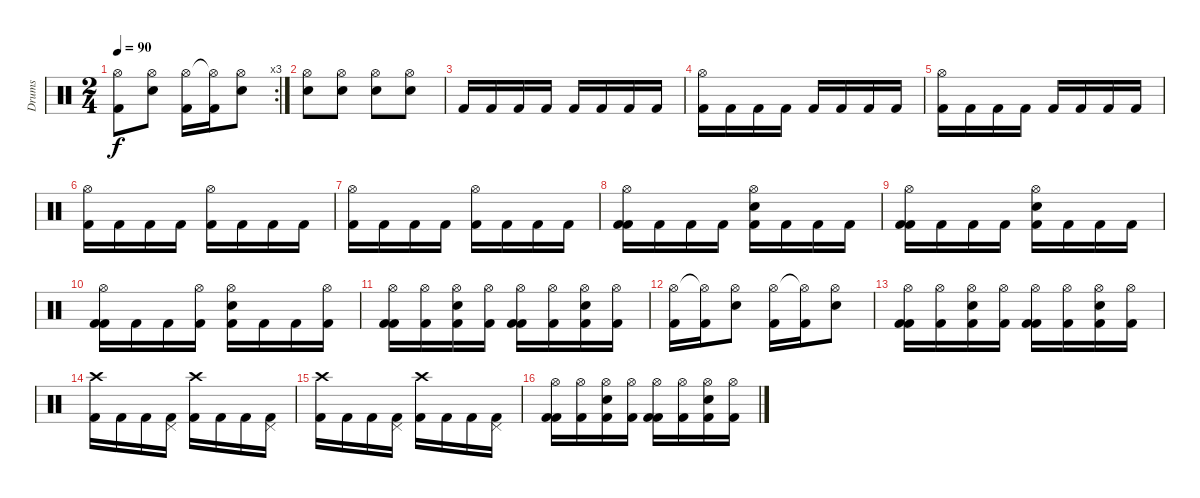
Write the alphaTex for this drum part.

\track ("Drums" "Drums") {instrument percussion}
\staff {score}
\articulation defaults
\rc 3
\ts (2 4)
\tempo 90
\clef neutral
\ks c
("Hi-Hat (open)" "Kick (hit) 2").8{dy f} ("Hi-Hat (open)" "Electric Snare (hit)").8 ("Hi-Hat (open)" "Kick (hit) 2").16 ("Hi-Hat (open)"{t} "Kick (hit) 2").16 ("Hi-Hat (open)" "Electric Snare (hit)").8 |
("Hi-Hat (open)" "Electric Snare (hit)").8 ("Hi-Hat (open)" "Electric Snare (hit)").8 ("Hi-Hat (open)" "Electric Snare (hit)").8 ("Hi-Hat (open)" "Electric Snare (hit)").8 |
"Kick (hit) 2".16 "Kick (hit) 2".16 "Kick (hit) 2".16 "Kick (hit) 2".16 "Kick (hit) 2".16 "Kick (hit) 2".16 "Kick (hit) 2".16 "Kick (hit) 2".16 |
("Hi-Hat (open)" "Kick (hit) 2").16 "Kick (hit) 2".16 "Kick (hit) 2".16 "Kick (hit) 2".16 "Kick (hit) 2".16 "Kick (hit) 2".16 "Kick (hit) 2".16 "Kick (hit) 2".16 |
("Hi-Hat (open)" "Kick (hit) 2").16 "Kick (hit) 2".16 "Kick (hit) 2".16 "Kick (hit) 2".16 "Kick (hit) 2".16 "Kick (hit) 2".16 "Kick (hit) 2".16 "Kick (hit) 2".16 |
("Hi-Hat (open)" "Kick (hit) 2").16 "Kick (hit) 2".16 "Kick (hit) 2".16 "Kick (hit) 2".16 ("Hi-Hat (open)" "Kick (hit) 2").16 "Kick (hit) 2".16 "Kick (hit) 2".16 "Kick (hit) 2".16 |
("Hi-Hat (open)" "Kick (hit) 2").16 "Kick (hit) 2".16 "Kick (hit) 2".16 "Kick (hit) 2".16 ("Hi-Hat (open)" "Kick (hit) 2").16 "Kick (hit) 2".16 "Kick (hit) 2".16 "Kick (hit) 2".16 |
("Hi-Hat (open)" "Kick (hit) 2" "Kick (hit) 2").16 "Kick (hit) 2".16 "Kick (hit) 2".16 "Kick (hit) 2".16 ("Hi-Hat (open)" "Electric Snare (hit)" "Kick (hit) 2").16 "Kick (hit) 2".16 "Kick (hit) 2".16 "Kick (hit) 2".16 |
("Hi-Hat (open)" "Kick (hit) 2" "Kick (hit) 2").16 "Kick (hit) 2".16 "Kick (hit) 2".16 "Kick (hit) 2".16 ("Hi-Hat (open)" "Electric Snare (hit)" "Kick (hit) 2").16 "Kick (hit) 2".16 "Kick (hit) 2".16 "Kick (hit) 2".16 |
("Hi-Hat (open)" "Kick (hit) 2" "Kick (hit) 2").16 "Kick (hit) 2".16 "Kick (hit) 2".16 ("Hi-Hat (open)" "Kick (hit) 2").16 ("Hi-Hat (open)" "Electric Snare (hit)" "Kick (hit) 2").16 "Kick (hit) 2".16 "Kick (hit) 2".16 ("Hi-Hat (open)" "Kick (hit) 2").16 |
("Hi-Hat (open)" "Kick (hit) 2" "Kick (hit) 2").16 ("Hi-Hat (open)" "Kick (hit) 2").16 ("Hi-Hat (open)" "Electric Snare (hit)" "Kick (hit) 2").16 ("Hi-Hat (open)" "Kick (hit) 2").16 ("Hi-Hat (open)" "Kick (hit) 2" "Kick (hit) 2").16 ("Hi-Hat (open)" "Kick (hit) 2").16 ("Hi-Hat (open)" "Electric Snare (hit)" "Kick (hit) 2").16 ("Hi-Hat (open)" "Kick (hit) 2").16 |
("Hi-Hat (open)" "Kick (hit) 2").16 ("Hi-Hat (open)"{t} "Kick (hit) 2").16 ("Hi-Hat (open)" "Electric Snare (hit)").8 ("Hi-Hat (open)" "Kick (hit) 2").16 ("Hi-Hat (open)"{t} "Kick (hit) 2").16 ("Hi-Hat (open)" "Electric Snare (hit)").8 |
("Hi-Hat (open)" "Kick (hit) 2" "Kick (hit) 2").16 ("Hi-Hat (open)" "Kick (hit) 2").16 ("Hi-Hat (open)" "Electric Snare (hit)" "Kick (hit) 2").16 ("Hi-Hat (open)" "Kick (hit) 2").16 ("Hi-Hat (open)" "Kick (hit) 2" "Kick (hit) 2").16 ("Hi-Hat (open)" "Kick (hit) 2").16 ("Hi-Hat (open)" "Electric Snare (hit)" "Kick (hit) 2").16 ("Hi-Hat (open)" "Kick (hit) 2").16 |
("Crash high (hit)" "Kick (hit) 2").16 "Kick (hit) 2".16 "Kick (hit) 2".16 ("Pedal Hi-Hat (hit)" "Kick (hit) 2").16 ("Crash high (hit)" "Kick (hit) 2").16 "Kick (hit) 2".16 "Kick (hit) 2".16 ("Pedal Hi-Hat (hit)" "Kick (hit) 2").16 |
("Crash high (hit)" "Kick (hit) 2").16 "Kick (hit) 2".16 "Kick (hit) 2".16 ("Pedal Hi-Hat (hit)" "Kick (hit) 2").16 ("Crash high (hit)" "Kick (hit) 2").16 "Kick (hit) 2".16 "Kick (hit) 2".16 ("Pedal Hi-Hat (hit)" "Kick (hit) 2").16 |
("Hi-Hat (open)" "Kick (hit) 2" "Kick (hit) 2").16 ("Hi-Hat (open)" "Kick (hit) 2").16 ("Hi-Hat (open)" "Electric Snare (hit)" "Kick (hit) 2").16 ("Hi-Hat (open)" "Kick (hit) 2").16 ("Hi-Hat (open)" "Kick (hit) 2" "Kick (hit) 2").16 ("Hi-Hat (open)" "Kick (hit) 2").16 ("Hi-Hat (open)" "Electric Snare (hit)" "Kick (hit) 2").16 ("Hi-Hat (open)" "Kick (hit) 2").16
